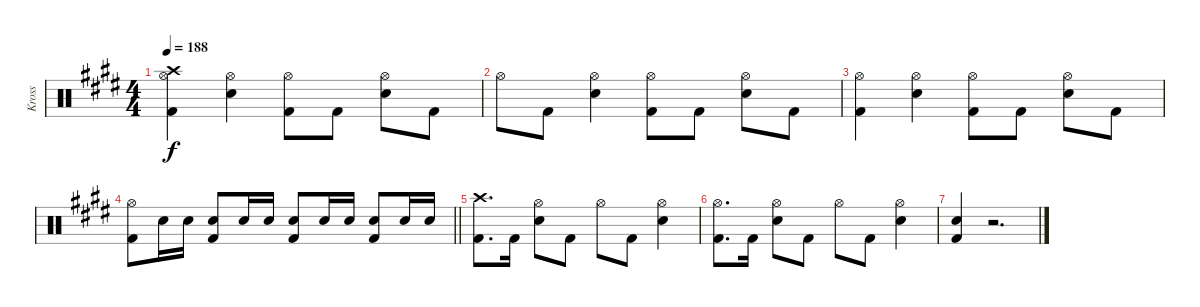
\track ("Kross" "Kross") {instrument percussion}
\staff {score}
\articulation defaults
\ts (4 4)
\tempo 188
\clef neutral
\ks e
("Crash high (hit)" "Hi-Hat (open)" "Kick (hit) 2").4{dy f} ("Hi-Hat (open)" "Electric Snare (hit)").4 ("Hi-Hat (open)" "Kick (hit) 2").8 "Kick (hit) 2".8 ("Hi-Hat (open)" "Electric Snare (hit)").8 "Kick (hit) 2".8 |
"Hi-Hat (open)".8 "Kick (hit) 2".8 ("Hi-Hat (open)" "Electric Snare (hit)").4 ("Hi-Hat (open)" "Kick (hit) 2").8 "Kick (hit) 2".8 ("Hi-Hat (open)" "Electric Snare (hit)").8 "Kick (hit) 2".8 |
("Hi-Hat (open)" "Kick (hit) 2").4 ("Hi-Hat (open)" "Electric Snare (hit)").4 ("Hi-Hat (open)" "Kick (hit) 2").8 "Kick (hit) 2".8 ("Hi-Hat (open)" "Electric Snare (hit)").8 "Kick (hit) 2".8 |
\barLineRight lightlight
("Hi-Hat (open)" "Kick (hit) 2").8 "Electric Snare (hit)".16 "Electric Snare (hit)".16 ("Electric Snare (hit)" "Kick (hit) 2").8 "Electric Snare (hit)".16 "Electric Snare (hit)".16 ("Electric Snare (hit)" "Kick (hit) 2").8 "Electric Snare (hit)".16 "Electric Snare (hit)".16 ("Electric Snare (hit)" "Kick (hit) 2").8 "Electric Snare (hit)".16 "Electric Snare (hit)".16 |
("Crash high (hit)" "Kick (hit) 2").8{d} "Kick (hit) 2".16 ("Hi-Hat (open)" "Electric Snare (hit)").8 "Kick (hit) 2".8 "Hi-Hat (open)".8 "Kick (hit) 2".8 ("Hi-Hat (open)" "Electric Snare (hit)").4 |
("Hi-Hat (open)" "Kick (hit) 2").8{d} "Kick (hit) 2".16 ("Hi-Hat (open)" "Electric Snare (hit)").8 "Kick (hit) 2".8 "Hi-Hat (open)".8 "Kick (hit) 2".8 ("Hi-Hat (open)" "Electric Snare (hit)").4 |
("Electric Snare (hit)" "Kick (hit) 2").4 r.2{d}
